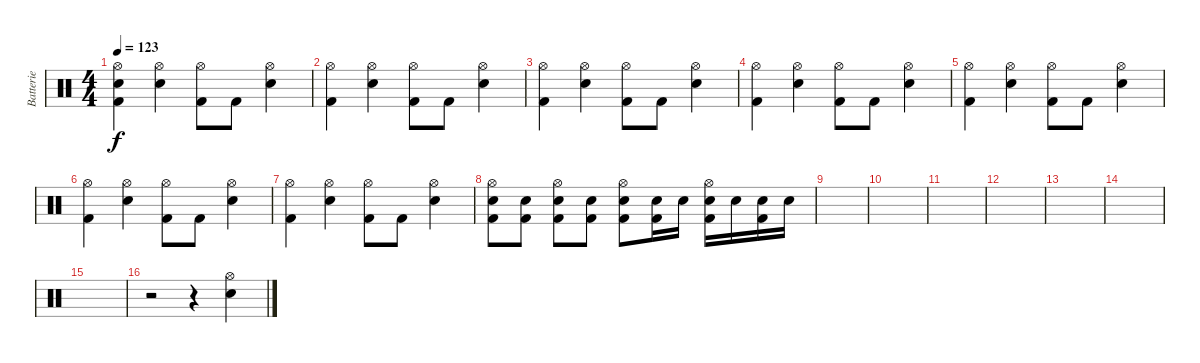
\track ("Batterie" "Batterie") {instrument percussion}
\staff {score}
\articulation defaults
\ts (4 4)
\tempo 123
\clef neutral
\ks c
("Hi-Hat (open)" "Snare (hit) 2" "Kick (hit) 2").4{dy f} ("Hi-Hat (open)" "Snare (hit) 2").4 ("Hi-Hat (open)" "Kick (hit) 2").8 "Kick (hit) 2".8 ("Hi-Hat (open)" "Snare (hit) 2").4 |
("Hi-Hat (open)" "Kick (hit) 2").4 ("Hi-Hat (open)" "Snare (hit) 2").4 ("Hi-Hat (open)" "Kick (hit) 2").8 "Kick (hit) 2".8 ("Hi-Hat (open)" "Snare (hit) 2").4 |
("Hi-Hat (open)" "Kick (hit) 2").4 ("Hi-Hat (open)" "Snare (hit) 2").4 ("Hi-Hat (open)" "Kick (hit) 2").8 "Kick (hit) 2".8 ("Hi-Hat (open)" "Snare (hit) 2").4 |
("Hi-Hat (open)" "Kick (hit) 2").4 ("Hi-Hat (open)" "Snare (hit) 2").4 ("Hi-Hat (open)" "Kick (hit) 2").8 "Kick (hit) 2".8 ("Hi-Hat (open)" "Snare (hit) 2").4 |
("Hi-Hat (open)" "Kick (hit) 2").4 ("Hi-Hat (open)" "Snare (hit) 2").4 ("Hi-Hat (open)" "Kick (hit) 2").8 "Kick (hit) 2".8 ("Hi-Hat (open)" "Snare (hit) 2").4 |
("Hi-Hat (open)" "Kick (hit) 2").4 ("Hi-Hat (open)" "Snare (hit) 2").4 ("Hi-Hat (open)" "Kick (hit) 2").8 "Kick (hit) 2".8 ("Hi-Hat (open)" "Snare (hit) 2").4 |
("Hi-Hat (open)" "Kick (hit) 2").4 ("Hi-Hat (open)" "Snare (hit) 2").4 ("Hi-Hat (open)" "Kick (hit) 2").8 "Kick (hit) 2".8 ("Hi-Hat (open)" "Snare (hit) 2").4{volume 7} |
("Hi-Hat (open)" "Snare (hit) 2" "Kick (hit) 2").8{volume 12} ("Snare (hit) 2" "Kick (hit) 2").8 ("Hi-Hat (open)" "Snare (hit) 2" "Kick (hit) 2").8 ("Snare (hit) 2" "Kick (hit) 2").8 ("Hi-Hat (open)" "Snare (hit) 2" "Kick (hit) 2").8 ("Snare (hit) 2" "Kick (hit) 2").16 "Snare (hit) 2".16 ("Hi-Hat (open)" "Snare (hit) 2" "Kick (hit) 2").16 "Snare (hit) 2".16 ("Snare (hit) 2" "Kick (hit) 2").16 "Snare (hit) 2".16 |
|
|
|
|
|
|
|
r.2 r.4 ("Hi-Hat (open)" "Snare (hit) 2").4
